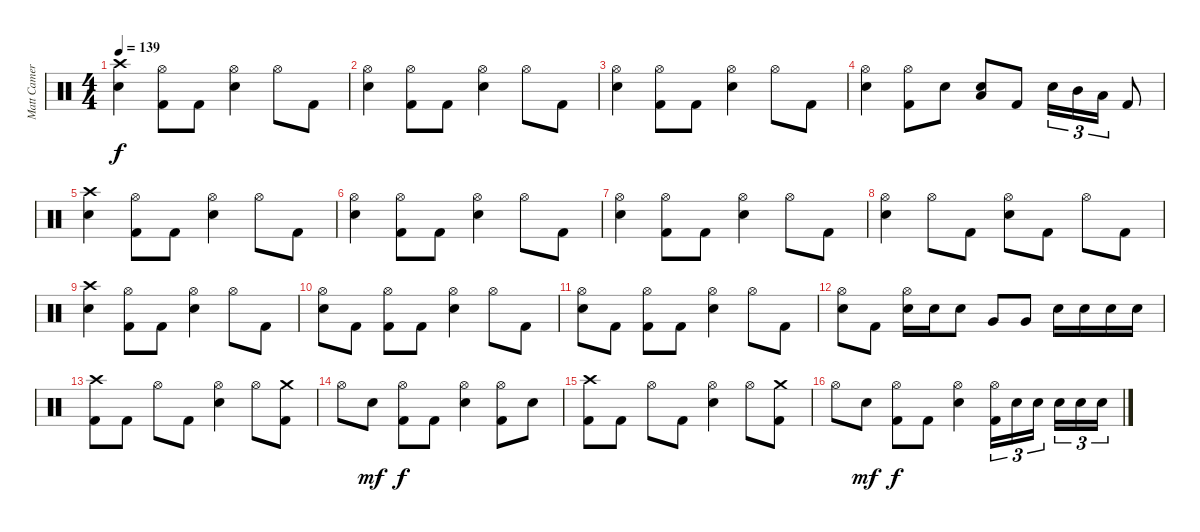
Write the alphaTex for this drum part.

\track ("Matt Cameron" "Matt Camer") {instrument percussion}
\staff {score}
\articulation defaults
\ts (4 4)
\tempo 139
\clef neutral
\ks c
("Crash high (hit)" "Snare (hit) 2").4{dy f} ("Hi-Hat (open)" "Kick (hit) 2").8 "Kick (hit) 2".8 ("Hi-Hat (open)" "Snare (hit) 2").4 "Hi-Hat (open)".8 "Kick (hit) 2".8 |
("Hi-Hat (open)" "Snare (hit) 2").4 ("Hi-Hat (open)" "Kick (hit) 2").8 "Kick (hit) 2".8 ("Hi-Hat (open)" "Snare (hit) 2").4 "Hi-Hat (open)".8 "Kick (hit) 2".8 |
("Hi-Hat (open)" "Snare (hit) 2").4 ("Hi-Hat (open)" "Kick (hit) 2").8 "Kick (hit) 2".8 ("Hi-Hat (open)" "Snare (hit) 2").4 "Hi-Hat (open)".8 "Kick (hit) 2".8 |
("Hi-Hat (open)" "Snare (hit) 2").4 ("Hi-Hat (open)" "Kick (hit) 2").8 "Snare (hit) 2".8 ("Low Floor Tom (hit)" "Snare (hit) 2").8 "Kick (hit) 2".8 "Snare (hit) 2".16{tu (3 2)} "Mid Tom (hit)".16{tu (3 2)} "Low Tom (hit)".16{tu (3 2)} "Kick (hit) 2".8 |
("Crash high (hit)" "Snare (hit) 2").4 ("Hi-Hat (open)" "Kick (hit) 2").8 "Kick (hit) 2".8 ("Hi-Hat (open)" "Snare (hit) 2").4 "Hi-Hat (open)".8 "Kick (hit) 2".8 |
("Hi-Hat (open)" "Snare (hit) 2").4 ("Hi-Hat (open)" "Kick (hit) 2").8 "Kick (hit) 2".8 ("Hi-Hat (open)" "Snare (hit) 2").4 "Hi-Hat (open)".8 "Kick (hit) 2".8 |
("Hi-Hat (open)" "Snare (hit) 2").4 ("Hi-Hat (open)" "Kick (hit) 2").8 "Kick (hit) 2".8 ("Hi-Hat (open)" "Snare (hit) 2").4 "Hi-Hat (open)".8 "Kick (hit) 2".8 |
("Hi-Hat (open)" "Snare (hit) 2").4 "Hi-Hat (open)".8 "Kick (hit) 2".8 ("Hi-Hat (open)" "Snare (hit) 2").8 "Kick (hit) 2".8 "Hi-Hat (open)".8 "Kick (hit) 2".8 |
("Crash high (hit)" "Snare (hit) 2").4 ("Hi-Hat (open)" "Kick (hit) 2").8 "Kick (hit) 2".8 ("Hi-Hat (open)" "Snare (hit) 2").4 "Hi-Hat (open)".8 "Kick (hit) 2".8 |
("Hi-Hat (open)" "Snare (hit) 2").8 "Kick (hit) 2".8 ("Hi-Hat (open)" "Kick (hit) 2").8 "Kick (hit) 2".8 ("Hi-Hat (open)" "Snare (hit) 2").4 "Hi-Hat (open)".8 "Kick (hit) 2".8 |
("Hi-Hat (open)" "Snare (hit) 2").8 "Kick (hit) 2".8 ("Hi-Hat (open)" "Kick (hit) 2").8 "Kick (hit) 2".8 ("Hi-Hat (open)" "Snare (hit) 2").4 "Hi-Hat (open)".8 "Kick (hit) 2".8 |
("Hi-Hat (open)" "Snare (hit) 2").8 "Kick (hit) 2".8 ("Hi-Hat (open)" "Snare (hit) 2").16 "Snare (hit) 2".16 "Snare (hit) 2".8 "Very Low Tom (hit)".8 "Very Low Tom (hit)".8 "Snare (hit) 2".16 "Snare (hit) 2".16 "Snare (hit) 2".16 "Snare (hit) 2".16 |
("Crash high (hit)" "Kick (hit) 2").8 "Kick (hit) 2".8 "Hi-Hat (open)".8 "Kick (hit) 2".8 ("Hi-Hat (open)" "Snare (hit) 2").4 "Hi-Hat (open)".8 ("Crash medium (hit)" "Kick (hit) 2").8 |
"Hi-Hat (open)".8 "Snare (hit) 2".8{dy mf} ("Hi-Hat (open)" "Kick (hit) 2").8{dy f} "Kick (hit) 2".8 ("Hi-Hat (open)" "Snare (hit) 2").4 ("Hi-Hat (open)" "Kick (hit) 2").8 "Snare (hit) 2".8 |
("Crash high (hit)" "Kick (hit) 2").8 "Kick (hit) 2".8 "Hi-Hat (open)".8 "Kick (hit) 2".8 ("Hi-Hat (open)" "Snare (hit) 2").4 "Hi-Hat (open)".8 ("Crash medium (hit)" "Kick (hit) 2").8 |
"Hi-Hat (open)".8 "Snare (hit) 2".8{dy mf} ("Hi-Hat (open)" "Kick (hit) 2").8{dy f} "Kick (hit) 2".8 ("Hi-Hat (open)" "Snare (hit) 2").4 ("Hi-Hat (open)" "Kick (hit) 2").16{tu (3 2)} "Snare (hit) 2".16{tu (3 2)} "Snare (hit) 2".16{tu (3 2)} "Snare (hit) 2".16{tu (3 2)} "Snare (hit) 2".16{tu (3 2)} "Snare (hit) 2".16{tu (3 2)}
